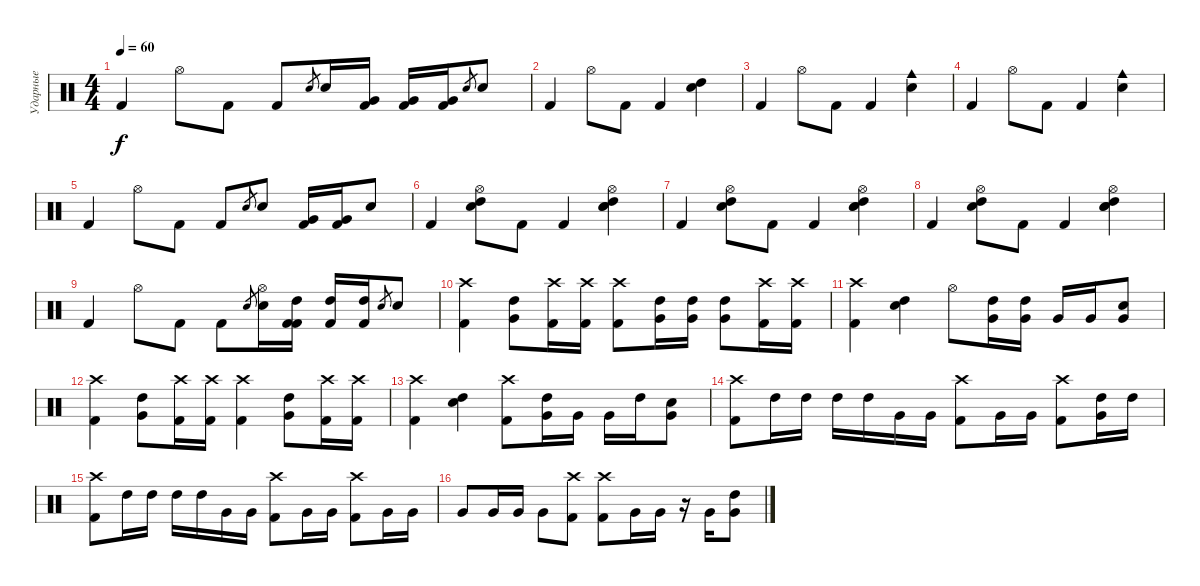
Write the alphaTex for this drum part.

\track ("Ударные" "Ударные") {instrument percussion}
\staff
\articulation defaults
\ts (4 4)
\tempo 60
\clef neutral
\ks c "Kick (hit) 2".4{dy f} "Hi-Hat (open)".8 "Kick (hit) 2".8 "Kick (hit) 2".8 "Snare (hit) 2".8{gr} "Snare (hit) 2".16
("Very Low Tom (hit)" "Kick (hit) 2").16 ("Very Low Tom (hit)" "Kick (hit) 2").16 ("Very Low Tom (hit)" "Kick (hit) 2").16 "Snare (hit) 2".8{gr} "Snare (hit) 2".8 |
"Kick (hit) 2".4 "Hi-Hat (open)".8 "Kick (hit) 2".8 "Kick (hit) 2".4 ("High Tom (hit)" "Snare (hit) 2").4 |
"Kick (hit) 2".4 "Hi-Hat (open)".8 "Kick (hit) 2".8 "Kick (hit) 2".4 ("Cowbell medium (hit)" "Snare (hit) 2").4 |
"Kick (hit) 2".4 "Hi-Hat (open)".8 "Kick (hit) 2".8 "Kick (hit) 2".4 ("Cowbell medium (hit)" "Snare (hit) 2").4 |
"Kick (hit) 2".4 "Hi-Hat (open)".8 "Kick (hit) 2".8 "Kick (hit) 2".8 "Snare (hit) 2".8{gr} "Snare (hit) 2".8 ("Kick (hit) 2" "Very Low Tom (hit)").16 ("Kick (hit) 2" "Very Low Tom (hit)").16 "Snare (hit) 2".8 |
"Kick (hit) 2".4 ("Hi-Hat (open)" "High Tom (hit)" "Snare (hit) 2").8 "Kick (hit) 2".8 "Kick (hit) 2".4 ("Hi-Hat (open)" "High Tom (hit)" "Snare (hit) 2" "Electric Snare (hit)").4 |
"Kick (hit) 2".4 ("Hi-Hat (open)" "High Tom (hit)" "Snare (hit) 2").8 "Kick (hit) 2".8 "Kick (hit) 2".4 ("Hi-Hat (open)" "High Tom (hit)" "Snare (hit) 2" "Electric Snare (hit)").4 |
"Kick (hit) 2".4 ("Hi-Hat (open)" "High Tom (hit)" "Snare (hit) 2").8 "Kick (hit) 2".8 "Kick (hit) 2".4 ("Hi-Hat (open)" "High Tom (hit)" "Snare (hit) 2" "Electric Snare (hit)").4 |
"Kick (hit) 2".4 "Hi-Hat (open)".8 "Kick (hit) 2".8 "Kick (hit) 2".8 "Snare (hit) 2".8{gr} ("Hi-Hat (open)" "Snare (hit) 2").16 ("Kick (hit) 2" "High Tom (hit)" "Kick (hit) 2").16 ("Kick (hit) 2" "High Tom (hit)").16 ("Kick (hit) 2" "High Tom (hit)").16 "Snare (hit) 2".8{gr} "Snare (hit) 2".8 |
("Crash high (hit)" "Kick (hit) 2").4 ("High Tom (hit)" "Very Low Tom (hit)").8 ("Crash high (hit)" "Kick (hit) 2").16 ("Crash high (hit)" "Kick (hit) 2").16 ("Crash high (hit)" "Kick (hit) 2").8 ("High Tom (hit)" "Very Low Tom (hit)").16 ("High Tom (hit)" "Very Low Tom (hit)").16 ("High Tom (hit)" "Very Low Tom (hit)").8 ("Crash high (hit)" "Kick (hit) 2").16 ("Crash high (hit)" "Kick (hit) 2").16 |
("Crash high (hit)" "Kick (hit) 2").4 ("High Tom (hit)" "Snare (hit) 2").4 "Hi-Hat (open)".8 ("High Tom (hit)" "Very Low Tom (hit)").16 ("High Tom (hit)" "Very Low Tom (hit)").16 "Very Low Tom (hit)".16 "Very Low Tom (hit)".16 ("Snare (hit) 2" "Very Low Tom (hit)").8 |
("Crash high (hit)" "Kick (hit) 2").4 ("High Tom (hit)" "Very Low Tom (hit)").8 ("Crash high (hit)" "Kick (hit) 2").16 ("Crash high (hit)" "Kick (hit) 2").16 ("Crash high (hit)" "Kick (hit) 2").4 ("High Tom (hit)" "Very Low Tom (hit)").8 ("Crash high (hit)" "Kick (hit) 2").16 ("Crash high (hit)" "Kick (hit) 2").16 |
("Crash high (hit)" "Kick (hit) 2").4 ("Snare (hit) 2" "High Tom (hit)").4 ("Crash high (hit)" "Kick (hit) 2").8 ("High Tom (hit)" "Very Low Tom (hit)").16 "Very Low Tom (hit)".16 "Very Low Tom (hit)".16 "High Tom (hit)".16 ("Snare (hit) 2" "Very Low Tom (hit)").8 |
("Crash high (hit)" "Kick (hit) 2").8 "High Tom (hit)".16 "High Tom (hit)".16 "High Tom (hit)".16 "High Tom (hit)".16 "Very Low Tom (hit)".16 "Very Low Tom (hit)".16 ("Crash high (hit)" "Kick (hit) 2").8 "Very Low Tom (hit)".16 "Very Low Tom (hit)".16 ("Crash high (hit)" "Kick (hit) 2").8 ("High Tom (hit)" "Very Low Tom (hit)").16 "High Tom (hit)".16 |
("Crash high (hit)" "Kick (hit) 2").8 "High Tom (hit)".16 "High Tom (hit)".16 "High Tom (hit)".16 "High Tom (hit)".16 "Very Low Tom (hit)".16 "Very Low Tom (hit)".16 ("Crash high (hit)" "Kick (hit) 2").8 "Very Low Tom (hit)".16 "Very Low Tom (hit)".16 ("Crash high (hit)" "Kick (hit) 2").8 "Very Low Tom (hit)".16 "Very Low Tom (hit)".16 |
"Very Low Tom (hit)".8 "Very Low Tom (hit)".16 "Very Low Tom (hit)".16 "Very Low Tom (hit)".8 ("Crash high (hit)" "Kick (hit) 2").8 ("Crash high (hit)" "Kick (hit) 2").8 "Very Low Tom (hit)".16 "Very Low Tom (hit)".16 r.16 "Very Low Tom (hit)".16 ("High Tom (hit)" "Very Low Tom (hit)").8
